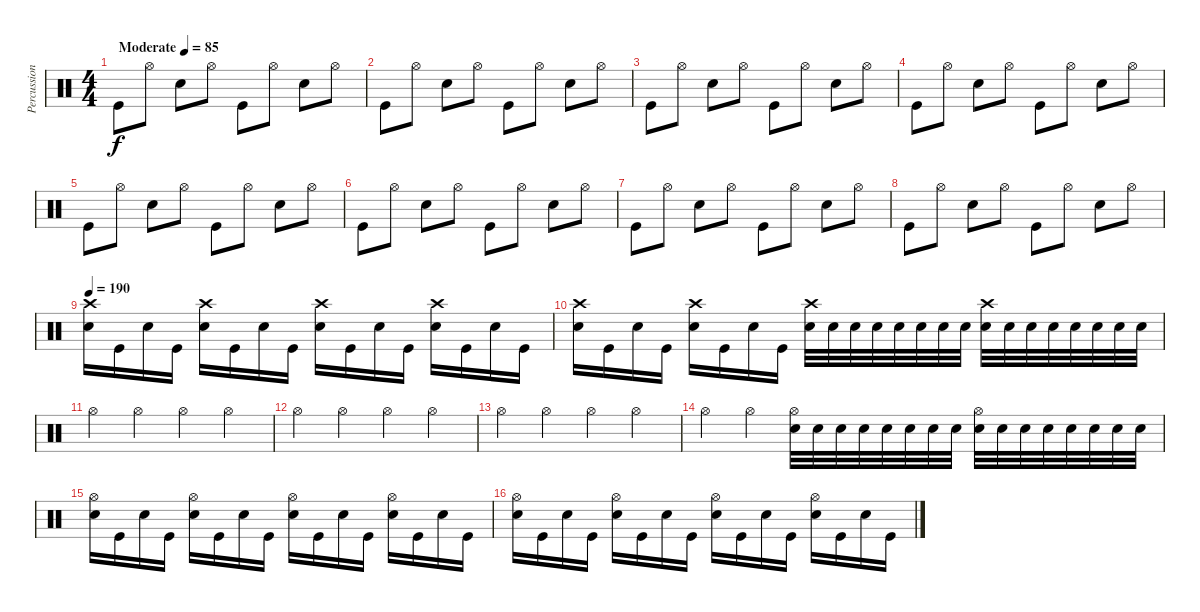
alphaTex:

\track ("Percussion" "Percussion") {instrument percussion}
\staff {score}
\articulation defaults
\ts (4 4)
\tempo (85 "Moderate")
\clef neutral
\ks c "Kick (hit)".8{dy f} "Hi-Hat (open)".8 "Snare (hit) 2".8 "Hi-Hat (open)".8 "Kick (hit)".8 "Hi-Hat (open)".8 "Snare (hit) 2".8 "Hi-Hat (open)".8
|
"Kick (hit)".8 "Hi-Hat (open)".8 "Snare (hit) 2".8 "Hi-Hat (open)".8 "Kick (hit)".8 "Hi-Hat (open)".8 "Snare (hit) 2".8 "Hi-Hat (open)".8 |
"Kick (hit)".8 "Hi-Hat (open)".8 "Snare (hit) 2".8 "Hi-Hat (open)".8 "Kick (hit)".8 "Hi-Hat (open)".8 "Snare (hit) 2".8 "Hi-Hat (open)".8 |
"Kick (hit)".8 "Hi-Hat (open)".8 "Snare (hit) 2".8 "Hi-Hat (open)".8 "Kick (hit)".8 "Hi-Hat (open)".8 "Snare (hit) 2".8 "Hi-Hat (open)".8 |
"Kick (hit)".8 "Hi-Hat (open)".8 "Snare (hit) 2".8 "Hi-Hat (open)".8 "Kick (hit)".8 "Hi-Hat (open)".8 "Snare (hit) 2".8 "Hi-Hat (open)".8 |
"Kick (hit)".8 "Hi-Hat (open)".8 "Snare (hit) 2".8 "Hi-Hat (open)".8 "Kick (hit)".8 "Hi-Hat (open)".8 "Snare (hit) 2".8 "Hi-Hat (open)".8 |
"Kick (hit)".8 "Hi-Hat (open)".8 "Snare (hit) 2".8 "Hi-Hat (open)".8 "Kick (hit)".8 "Hi-Hat (open)".8 "Snare (hit) 2".8 "Hi-Hat (open)".8 |
"Kick (hit)".8 "Hi-Hat (open)".8 "Snare (hit) 2".8 "Hi-Hat (open)".8 "Kick (hit)".8 "Hi-Hat (open)".8 "Snare (hit) 2".8 "Hi-Hat (open)".8 |
\tempo 190
("Snare (hit) 2" "Crash high (hit)").16 "Kick (hit)".16 "Snare (hit) 2".16 "Kick (hit)".16 ("Snare (hit) 2" "Crash high (hit)").16 "Kick (hit)".16 "Snare (hit) 2".16 "Kick (hit)".16 ("Snare (hit) 2" "Crash high (hit)").16 "Kick (hit)".16 "Snare (hit) 2".16 "Kick (hit)".16 ("Snare (hit) 2" "Crash high (hit)").16 "Kick (hit)".16 "Snare (hit) 2".16 "Kick (hit)".16 |
("Snare (hit) 2" "Crash high (hit)").16 "Kick (hit)".16 "Snare (hit) 2".16 "Kick (hit)".16 ("Snare (hit) 2" "Crash high (hit)").16 "Kick (hit)".16 "Snare (hit) 2".16 "Kick (hit)".16 ("Snare (hit) 2" "Crash high (hit)").32 "Snare (hit) 2".32 "Snare (hit) 2".32 "Snare (hit) 2".32 "Snare (hit) 2".32 "Snare (hit) 2".32 "Snare (hit) 2".32 "Snare (hit) 2".32 ("Snare (hit) 2" "Crash high (hit)").32 "Snare (hit) 2".32 "Snare (hit) 2".32 "Snare (hit) 2".32 "Snare (hit) 2".32 "Snare (hit) 2".32 "Snare (hit) 2".32 "Snare (hit) 2".32 |
"Hi-Hat (open)".4 "Hi-Hat (open)".4 "Hi-Hat (open)".4 "Hi-Hat (open)".4 |
"Hi-Hat (open)".4 "Hi-Hat (open)".4 "Hi-Hat (open)".4 "Hi-Hat (open)".4 |
"Hi-Hat (open)".4 "Hi-Hat (open)".4 "Hi-Hat (open)".4 "Hi-Hat (open)".4 |
"Hi-Hat (open)".4 "Hi-Hat (open)".4 ("Snare (hit) 2" "Hi-Hat (open)").32 "Snare (hit) 2".32 "Snare (hit) 2".32 "Snare (hit) 2".32 "Snare (hit) 2".32 "Snare (hit) 2".32 "Snare (hit) 2".32 "Snare (hit) 2".32 ("Snare (hit) 2" "Hi-Hat (open)").32 "Snare (hit) 2".32 "Snare (hit) 2".32 "Snare (hit) 2".32 "Snare (hit) 2".32 "Snare (hit) 2".32 "Snare (hit) 2".32 "Snare (hit) 2".32 |
("Snare (hit) 2" "Hi-Hat (open)").16 "Kick (hit)".16 "Snare (hit) 2".16 "Kick (hit)".16 ("Snare (hit) 2" "Hi-Hat (open)").16 "Kick (hit)".16 "Snare (hit) 2".16 "Kick (hit)".16 ("Snare (hit) 2" "Hi-Hat (open)").16 "Kick (hit)".16 "Snare (hit) 2".16 "Kick (hit)".16 ("Snare (hit) 2" "Hi-Hat (open)").16 "Kick (hit)".16 "Snare (hit) 2".16 "Kick (hit)".16 |
("Snare (hit) 2" "Hi-Hat (open)").16 "Kick (hit)".16 "Snare (hit) 2".16 "Kick (hit)".16 ("Snare (hit) 2" "Hi-Hat (open)").16 "Kick (hit)".16 "Snare (hit) 2".16 "Kick (hit)".16 ("Snare (hit) 2" "Hi-Hat (open)").16 "Kick (hit)".16 "Snare (hit) 2".16 "Kick (hit)".16 ("Snare (hit) 2" "Hi-Hat (open)").16 "Kick (hit)".16 "Snare (hit) 2".16 "Kick (hit)".16
